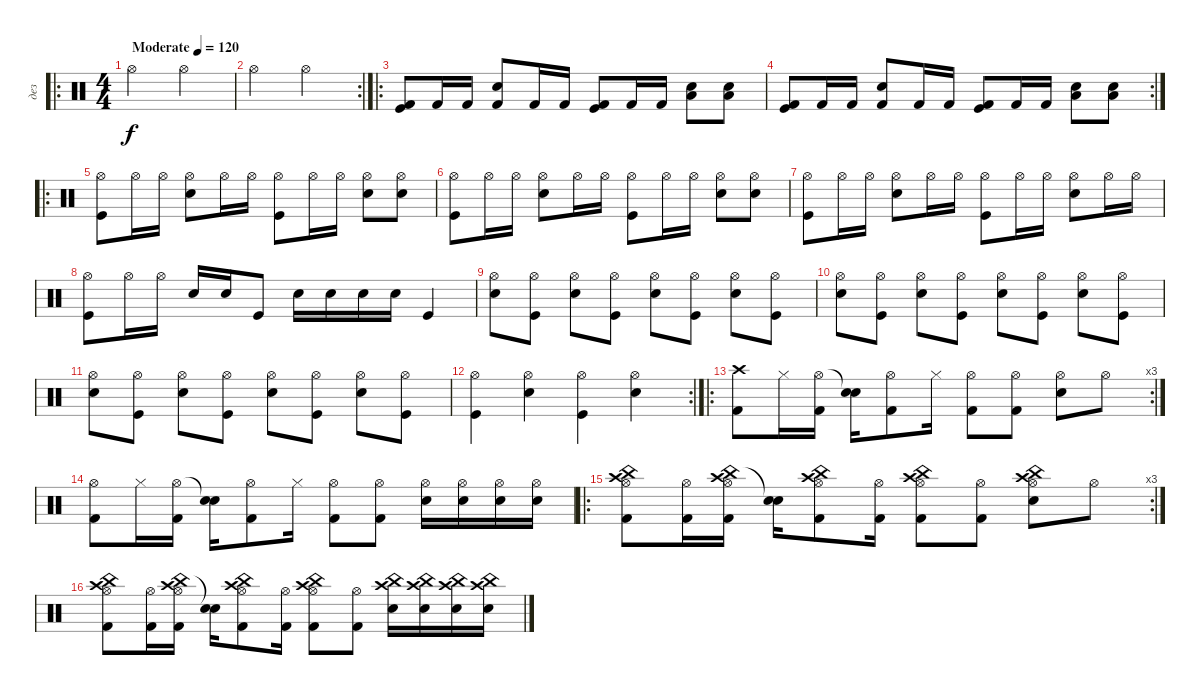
\track ("дез" "дез") {instrument percussion}
\staff {score}
\articulation defaults
\ro
\ts (4 4)
\tempo (120 "Moderate")
\clef neutral
\ks c "Hi-Hat (open)".2{dy f} "Hi-Hat (open)".2
|
\rc 2 "Hi-Hat (open)".2 "Hi-Hat (open)".2
|
\ro
("Kick (hit) 2" "Kick (hit)").8 "Kick (hit) 2".16 "Kick (hit) 2".16 ("Kick (hit) 2" "Snare (hit) 2").8 "Kick (hit) 2".16 "Kick (hit) 2".16 ("Kick (hit) 2" "Kick (hit)").8 "Kick (hit) 2".16 "Kick (hit) 2".16 ("Snare (hit) 2" "Low Tom (hit)").8 ("Snare (hit) 2" "Low Tom (hit)").8 |
\rc 2
("Kick (hit) 2" "Kick (hit)").8 "Kick (hit) 2".16 "Kick (hit) 2".16 ("Kick (hit) 2" "Snare (hit) 2").8 "Kick (hit) 2".16 "Kick (hit) 2".16 ("Kick (hit) 2" "Kick (hit)").8 "Kick (hit) 2".16 "Kick (hit) 2".16 ("Snare (hit) 2" "Low Tom (hit)").8 ("Snare (hit) 2" "Low Tom (hit)").8 |
\ro
("Hi-Hat (open)" "Kick (hit)").8 "Hi-Hat (open)".16 "Hi-Hat (open)".16 ("Hi-Hat (open)" "Snare (hit) 2").8 "Hi-Hat (open)".16 "Hi-Hat (open)".16 ("Hi-Hat (open)" "Kick (hit)").8 "Hi-Hat (open)".16 "Hi-Hat (open)".16 ("Snare (hit) 2" "Hi-Hat (open)").8 ("Snare (hit) 2" "Hi-Hat (open)").8 |
("Hi-Hat (open)" "Kick (hit)").8 "Hi-Hat (open)".16 "Hi-Hat (open)".16 ("Hi-Hat (open)" "Snare (hit) 2").8 "Hi-Hat (open)".16 "Hi-Hat (open)".16 ("Hi-Hat (open)" "Kick (hit)").8 "Hi-Hat (open)".16 "Hi-Hat (open)".16 ("Snare (hit) 2" "Hi-Hat (open)").8 ("Snare (hit) 2" "Hi-Hat (open)").8 |
("Hi-Hat (open)" "Kick (hit)").8 "Hi-Hat (open)".16 "Hi-Hat (open)".16 ("Hi-Hat (open)" "Snare (hit) 2").8 "Hi-Hat (open)".16 "Hi-Hat (open)".16 ("Hi-Hat (open)" "Kick (hit)").8 "Hi-Hat (open)".16 "Hi-Hat (open)".16 ("Snare (hit) 2" "Hi-Hat (open)").8 "Hi-Hat (open)".16 "Hi-Hat (open)".16 |
("Hi-Hat (open)" "Kick (hit)").8 "Hi-Hat (open)".16 "Hi-Hat (open)".16 "Snare (hit) 2".16 "Snare (hit) 2".16 "Kick (hit)".8 "Snare (hit) 2".16 "Snare (hit) 2".16 "Snare (hit) 2".16 "Snare (hit) 2".16 "Kick (hit)".4 |
("Hi-Hat (open)" "Snare (hit) 2").8 ("Hi-Hat (open)" "Kick (hit)").8 ("Hi-Hat (open)" "Snare (hit) 2").8 ("Hi-Hat (open)" "Kick (hit)").8 ("Hi-Hat (open)" "Snare (hit) 2").8 ("Hi-Hat (open)" "Kick (hit)").8 ("Hi-Hat (open)" "Snare (hit) 2").8 ("Hi-Hat (open)" "Kick (hit)").8 |
("Hi-Hat (open)" "Snare (hit) 2").8 ("Hi-Hat (open)" "Kick (hit)").8 ("Hi-Hat (open)" "Snare (hit) 2").8 ("Hi-Hat (open)" "Kick (hit)").8 ("Hi-Hat (open)" "Snare (hit) 2").8 ("Hi-Hat (open)" "Kick (hit)").8 ("Hi-Hat (open)" "Snare (hit) 2").8 ("Hi-Hat (open)" "Kick (hit)").8 |
("Hi-Hat (open)" "Snare (hit) 2").8 ("Hi-Hat (open)" "Kick (hit)").8 ("Hi-Hat (open)" "Snare (hit) 2").8 ("Hi-Hat (open)" "Kick (hit)").8 ("Hi-Hat (open)" "Snare (hit) 2").8 ("Hi-Hat (open)" "Kick (hit)").8 ("Hi-Hat (open)" "Snare (hit) 2").8 ("Hi-Hat (open)" "Kick (hit)").8 |
\rc 2
("Hi-Hat (open)" "Kick (hit)").4 ("Hi-Hat (open)" "Snare (hit) 2").4 ("Hi-Hat (open)" "Kick (hit)").4 ("Hi-Hat (open)" "Snare (hit) 2").4 |
\ro
\rc 3
("Crash high (hit)" "Kick (hit) 2").8 "Hi-Hat (closed)".16 ("Hi-Hat (open)" "Kick (hit) 2").16 ("Snare (hit)"{t} "Snare (hit) 2").16 ("Hi-Hat (open)" "Kick (hit) 2").8 "Hi-Hat (closed)".16 ("Hi-Hat (open)" "Kick (hit) 2").8 ("Hi-Hat (open)" "Kick (hit) 2").8 ("Hi-Hat (open)" "Snare (hit) 2").8 "Hi-Hat (open)".8 |
("Hi-Hat (open)" "Kick (hit) 2").8 "Hi-Hat (closed)".16 ("Hi-Hat (open)" "Kick (hit) 2").16 ("Snare (hit)"{t} "Snare (hit) 2").16 ("Hi-Hat (open)" "Kick (hit) 2").8 "Hi-Hat (closed)".16 ("Hi-Hat (open)" "Kick (hit) 2").8 ("Hi-Hat (open)" "Kick (hit) 2").8 ("Hi-Hat (open)" "Snare (hit) 2").16 ("Hi-Hat (open)" "Snare (hit) 2").16 ("Hi-Hat (open)" "Snare (hit) 2").16 ("Hi-Hat (open)" "Snare (hit) 2").16 |
\ro
\rc 3
("China (hit)" "Hi-Hat (open)" "Crash high (hit)" "Kick (hit) 2").8 ("Hi-Hat (open)" "Kick (hit) 2").16 ("China (hit)" "Hi-Hat (open)" "Crash high (hit)" "Kick (hit) 2").16 ("Snare (hit)"{t} "Snare (hit) 2").16 ("China (hit)" "Hi-Hat (open)" "Crash high (hit)" "Kick (hit) 2").8 ("Hi-Hat (open)" "Kick (hit) 2").16 ("China (hit)" "Hi-Hat (open)" "Crash high (hit)" "Kick (hit) 2").8 ("Hi-Hat (open)" "Kick (hit) 2").8 ("China (hit)" "Hi-Hat (open)" "Crash high (hit)" "Snare (hit) 2").8 "Hi-Hat (open)".8 |
("China (hit)" "Hi-Hat (open)" "Crash high (hit)" "Kick (hit) 2").8 ("Hi-Hat (open)" "Kick (hit) 2").16 ("China (hit)" "Hi-Hat (open)" "Crash high (hit)" "Kick (hit) 2").16 ("Snare (hit)"{t} "Snare (hit) 2").16 ("China (hit)" "Hi-Hat (open)" "Crash high (hit)" "Kick (hit) 2").8 ("Hi-Hat (open)" "Kick (hit) 2").16 ("China (hit)" "Hi-Hat (open)" "Crash high (hit)" "Kick (hit) 2").8 ("Hi-Hat (open)" "Kick (hit) 2").8 ("China (hit)" "Crash high (hit)" "Snare (hit) 2").16 ("China (hit)" "Crash high (hit)" "Snare (hit) 2").16 ("China (hit)" "Crash high (hit)" "Snare (hit) 2").16 ("China (hit)" "Crash high (hit)" "Snare (hit) 2").16
